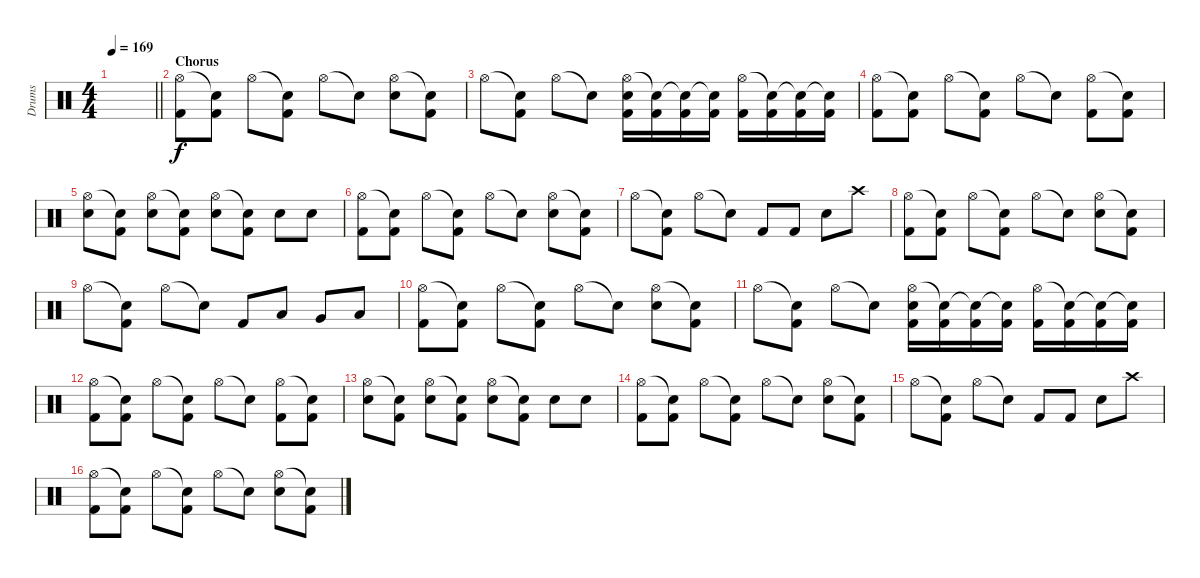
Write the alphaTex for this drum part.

\track ("Drums" "Drums") {instrument percussion}
\staff {score}
\articulation defaults
\ts (4 4)
\tempo 169
\clef neutral
\barLineRight lightlight
\ks c
|
\section ("" "Chorus")
("Hi-Hat (open)" "Kick (hit) 2").8 ("Snare (hit)"{t} "Kick (hit) 2").8 "Hi-Hat (open)".8 ("Snare (hit)"{t} "Kick (hit) 2").8 "Hi-Hat (open)".8 "Snare (hit)"{t}.8 ("Hi-Hat (open)" "Electric Snare (hit)").8 ("Snare (hit)"{t} "Kick (hit) 2").8 |
"Hi-Hat (open)".8 ("Snare (hit)"{t} "Kick (hit) 2").8 "Hi-Hat (open)".8 "Snare (hit)"{t}.8 ("Hi-Hat (open)" "Electric Snare (hit)" "Kick (hit) 2").16 ("Snare (hit)"{t} "Kick (hit) 2").16 ("Snare (hit)"{t} "Kick (hit) 2").16 ("Snare (hit)"{t} "Kick (hit) 2").16 ("Hi-Hat (open)" "Kick (hit) 2").16 ("Snare (hit)"{t} "Kick (hit) 2").16 ("Snare (hit)"{t} "Kick (hit) 2").16 ("Snare (hit)"{t} "Kick (hit) 2").16 |
("Hi-Hat (open)" "Kick (hit) 2").8 ("Snare (hit)"{t} "Kick (hit) 2").8 "Hi-Hat (open)".8 ("Snare (hit)"{t} "Kick (hit) 2").8 "Hi-Hat (open)".8 "Snare (hit)"{t}.8 ("Hi-Hat (open)" "Kick (hit) 2").8 ("Snare (hit)"{t} "Kick (hit) 2").8 |
("Hi-Hat (open)" "Electric Snare (hit)").8 ("Snare (hit)"{t} "Kick (hit) 2").8 ("Hi-Hat (open)" "Electric Snare (hit)").8 ("Snare (hit)"{t} "Kick (hit) 2").8 ("Hi-Hat (open)" "Electric Snare (hit)").8 ("Snare (hit)"{t} "Kick (hit) 2").8 "Electric Snare (hit)".8 "Electric Snare (hit)".8 |
("Hi-Hat (open)" "Kick (hit) 2").8 ("Snare (hit)"{t} "Kick (hit) 2").8 "Hi-Hat (open)".8 ("Snare (hit)"{t} "Kick (hit) 2").8 "Hi-Hat (open)".8 "Snare (hit)"{t}.8 ("Hi-Hat (open)" "Electric Snare (hit)").8 ("Snare (hit)"{t} "Kick (hit) 2").8 |
"Hi-Hat (open)".8 ("Snare (hit)"{t} "Kick (hit) 2").8 "Hi-Hat (open)".8 "Snare (hit)"{t}.8 "Kick (hit) 2".8 "Kick (hit) 2".8 "Electric Snare (hit)".8 "Crash high (hit)".8 |
("Hi-Hat (open)" "Kick (hit) 2").8 ("Snare (hit)"{t} "Kick (hit) 2").8 "Hi-Hat (open)".8 ("Snare (hit)"{t} "Kick (hit) 2").8 "Hi-Hat (open)".8 "Snare (hit)"{t}.8 ("Hi-Hat (open)" "Electric Snare (hit)").8 ("Snare (hit)"{t} "Kick (hit) 2").8 |
"Hi-Hat (open)".8 ("Snare (hit)"{t} "Kick (hit) 2").8 "Hi-Hat (open)".8 "Snare (hit)"{t}.8 "Kick (hit) 2".8 "Low Tom (hit)".8 "Very Low Tom (hit)".8 "Low Floor Tom (hit)".8 |
("Hi-Hat (open)" "Kick (hit) 2").8 ("Snare (hit)"{t} "Kick (hit) 2").8 "Hi-Hat (open)".8 ("Snare (hit)"{t} "Kick (hit) 2").8 "Hi-Hat (open)".8 "Snare (hit)"{t}.8 ("Hi-Hat (open)" "Electric Snare (hit)").8 ("Snare (hit)"{t} "Kick (hit) 2").8 |
"Hi-Hat (open)".8 ("Snare (hit)"{t} "Kick (hit) 2").8 "Hi-Hat (open)".8 "Snare (hit)"{t}.8 ("Hi-Hat (open)" "Electric Snare (hit)" "Kick (hit) 2").16 ("Snare (hit)"{t} "Kick (hit) 2").16 ("Snare (hit)"{t} "Kick (hit) 2").16 ("Snare (hit)"{t} "Kick (hit) 2").16 ("Hi-Hat (open)" "Kick (hit) 2").16 ("Snare (hit)"{t} "Kick (hit) 2").16 ("Snare (hit)"{t} "Kick (hit) 2").16 ("Snare (hit)"{t} "Kick (hit) 2").16 |
("Hi-Hat (open)" "Kick (hit) 2").8 ("Snare (hit)"{t} "Kick (hit) 2").8 "Hi-Hat (open)".8 ("Snare (hit)"{t} "Kick (hit) 2").8 "Hi-Hat (open)".8 "Snare (hit)"{t}.8 ("Hi-Hat (open)" "Kick (hit) 2").8 ("Snare (hit)"{t} "Kick (hit) 2").8 |
("Hi-Hat (open)" "Electric Snare (hit)").8 ("Snare (hit)"{t} "Kick (hit) 2").8 ("Hi-Hat (open)" "Electric Snare (hit)").8 ("Snare (hit)"{t} "Kick (hit) 2").8 ("Hi-Hat (open)" "Electric Snare (hit)").8 ("Snare (hit)"{t} "Kick (hit) 2").8 "Electric Snare (hit)".8 "Electric Snare (hit)".8 |
("Hi-Hat (open)" "Kick (hit) 2").8 ("Snare (hit)"{t} "Kick (hit) 2").8 "Hi-Hat (open)".8 ("Snare (hit)"{t} "Kick (hit) 2").8 "Hi-Hat (open)".8 "Snare (hit)"{t}.8 ("Hi-Hat (open)" "Electric Snare (hit)").8 ("Snare (hit)"{t} "Kick (hit) 2").8 |
"Hi-Hat (open)".8 ("Snare (hit)"{t} "Kick (hit) 2").8 "Hi-Hat (open)".8 "Snare (hit)"{t}.8 "Kick (hit) 2".8 "Kick (hit) 2".8 "Electric Snare (hit)".8 "Crash high (hit)".8 |
("Hi-Hat (open)" "Kick (hit) 2").8 ("Snare (hit)"{t} "Kick (hit) 2").8 "Hi-Hat (open)".8 ("Snare (hit)"{t} "Kick (hit) 2").8 "Hi-Hat (open)".8 "Snare (hit)"{t}.8 ("Hi-Hat (open)" "Electric Snare (hit)").8 ("Snare (hit)"{t} "Kick (hit) 2").8
